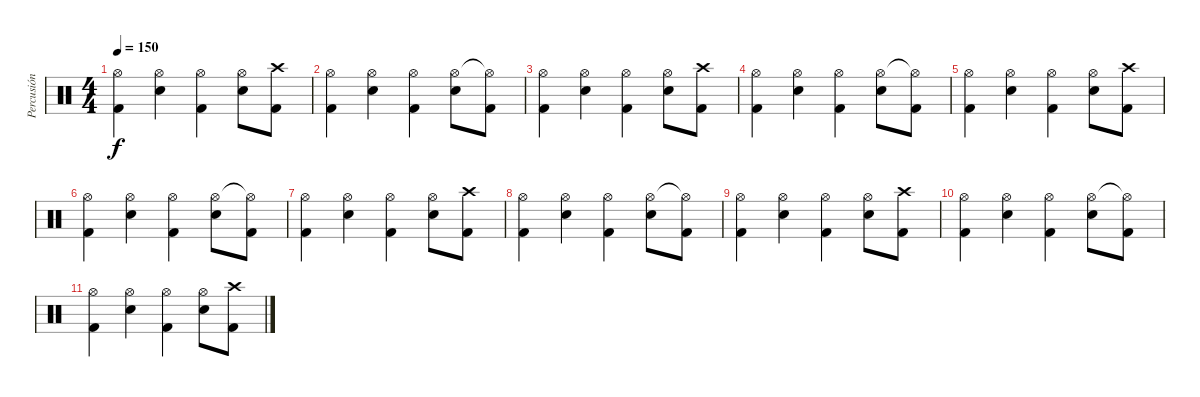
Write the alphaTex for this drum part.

\track ("Percusión" "Percusión") {instrument percussion}
\staff {score}
\articulation defaults
\ts (4 4)
\tempo 150
\clef neutral
\ks c
("Kick (hit) 2" "Hi-Hat (open)").4{dy f} ("Electric Snare (hit)" "Hi-Hat (open)").4 ("Kick (hit) 2" "Hi-Hat (open)").4 ("Electric Snare (hit)" "Hi-Hat (open)").8 ("Kick (hit) 2" "Crash high (hit)").8 |
("Kick (hit) 2" "Hi-Hat (open)").4 ("Electric Snare (hit)" "Hi-Hat (open)").4 ("Kick (hit) 2" "Hi-Hat (open)").4 ("Electric Snare (hit)" "Hi-Hat (open)").8 ("Kick (hit) 2" "Hi-Hat (open)"{t}).8 |
("Kick (hit) 2" "Hi-Hat (open)").4 ("Electric Snare (hit)" "Hi-Hat (open)").4 ("Kick (hit) 2" "Hi-Hat (open)").4 ("Electric Snare (hit)" "Hi-Hat (open)").8 ("Kick (hit) 2" "Crash high (hit)").8 |
("Kick (hit) 2" "Hi-Hat (open)").4 ("Electric Snare (hit)" "Hi-Hat (open)").4 ("Kick (hit) 2" "Hi-Hat (open)").4 ("Electric Snare (hit)" "Hi-Hat (open)").8 ("Kick (hit) 2" "Hi-Hat (open)"{t}).8 |
("Kick (hit) 2" "Hi-Hat (open)").4 ("Electric Snare (hit)" "Hi-Hat (open)").4 ("Kick (hit) 2" "Hi-Hat (open)").4 ("Electric Snare (hit)" "Hi-Hat (open)").8 ("Kick (hit) 2" "Crash high (hit)").8 |
("Kick (hit) 2" "Hi-Hat (open)").4 ("Electric Snare (hit)" "Hi-Hat (open)").4 ("Kick (hit) 2" "Hi-Hat (open)").4 ("Electric Snare (hit)" "Hi-Hat (open)").8 ("Kick (hit) 2" "Hi-Hat (open)"{t}).8 |
("Kick (hit) 2" "Hi-Hat (open)").4 ("Electric Snare (hit)" "Hi-Hat (open)").4 ("Kick (hit) 2" "Hi-Hat (open)").4 ("Electric Snare (hit)" "Hi-Hat (open)").8 ("Kick (hit) 2" "Crash high (hit)").8 |
("Kick (hit) 2" "Hi-Hat (open)").4 ("Electric Snare (hit)" "Hi-Hat (open)").4 ("Kick (hit) 2" "Hi-Hat (open)").4 ("Electric Snare (hit)" "Hi-Hat (open)").8 ("Kick (hit) 2" "Hi-Hat (open)"{t}).8 |
("Kick (hit) 2" "Hi-Hat (open)").4 ("Electric Snare (hit)" "Hi-Hat (open)").4 ("Kick (hit) 2" "Hi-Hat (open)").4 ("Electric Snare (hit)" "Hi-Hat (open)").8 ("Kick (hit) 2" "Crash high (hit)").8 |
("Kick (hit) 2" "Hi-Hat (open)").4 ("Electric Snare (hit)" "Hi-Hat (open)").4 ("Kick (hit) 2" "Hi-Hat (open)").4 ("Electric Snare (hit)" "Hi-Hat (open)").8 ("Kick (hit) 2" "Hi-Hat (open)"{t}).8 |
("Kick (hit) 2" "Hi-Hat (open)").4 ("Electric Snare (hit)" "Hi-Hat (open)").4 ("Kick (hit) 2" "Hi-Hat (open)").4 ("Electric Snare (hit)" "Hi-Hat (open)").8 ("Kick (hit) 2" "Crash high (hit)").8
